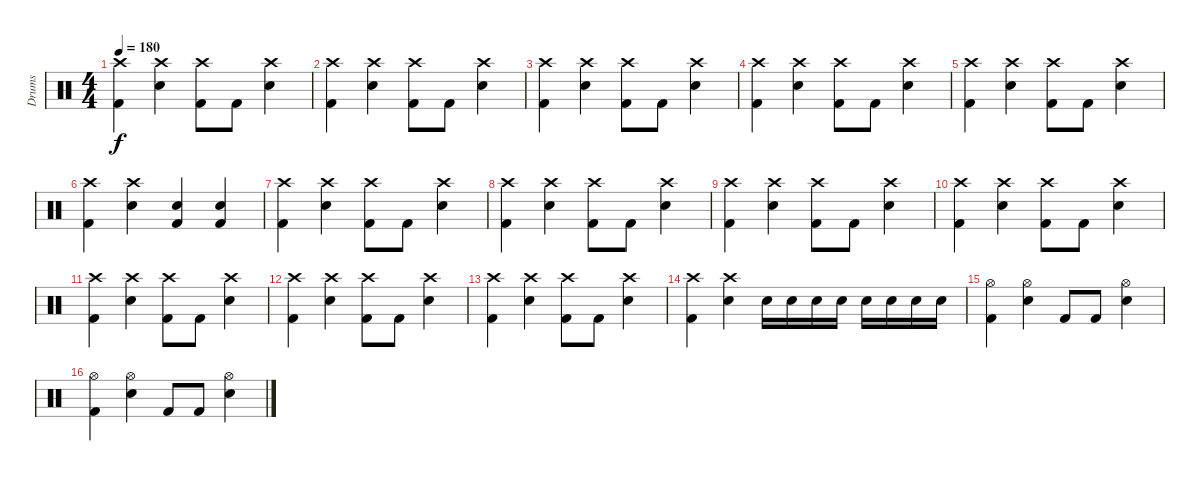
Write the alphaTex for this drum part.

\track ("Drums" "Drums") {instrument percussion}
\staff {score}
\articulation defaults
\ts (4 4)
\tempo 180
\clef neutral
\ks c
("Kick (hit) 2" "Crash high (hit)").4{dy f} ("Snare (hit) 2" "Crash high (hit)").4 ("Kick (hit) 2" "Crash high (hit)").8 "Kick (hit) 2".8 ("Snare (hit) 2" "Crash high (hit)").4 |
("Kick (hit) 2" "Crash high (hit)").4 ("Snare (hit) 2" "Crash high (hit)").4 ("Kick (hit) 2" "Crash high (hit)").8 "Kick (hit) 2".8 ("Snare (hit) 2" "Crash high (hit)").4 |
("Kick (hit) 2" "Crash high (hit)").4 ("Snare (hit) 2" "Crash high (hit)").4 ("Kick (hit) 2" "Crash high (hit)").8 "Kick (hit) 2".8 ("Snare (hit) 2" "Crash high (hit)").4 |
("Kick (hit) 2" "Crash high (hit)").4 ("Snare (hit) 2" "Crash high (hit)").4 ("Kick (hit) 2" "Crash high (hit)").8 "Kick (hit) 2".8 ("Snare (hit) 2" "Crash high (hit)").4 |
("Kick (hit) 2" "Crash high (hit)").4 ("Snare (hit) 2" "Crash high (hit)").4 ("Kick (hit) 2" "Crash high (hit)").8 "Kick (hit) 2".8 ("Snare (hit) 2" "Crash high (hit)").4 |
("Kick (hit) 2" "Crash high (hit)").4 ("Snare (hit) 2" "Crash high (hit)").4 ("Kick (hit) 2" "Snare (hit) 2").4 ("Snare (hit) 2" "Kick (hit) 2").4 |
("Kick (hit) 2" "Crash high (hit)").4 ("Snare (hit) 2" "Crash high (hit)").4 ("Kick (hit) 2" "Crash high (hit)").8 "Kick (hit) 2".8 ("Snare (hit) 2" "Crash high (hit)").4 |
("Kick (hit) 2" "Crash high (hit)").4 ("Snare (hit) 2" "Crash high (hit)").4 ("Kick (hit) 2" "Crash high (hit)").8 "Kick (hit) 2".8 ("Snare (hit) 2" "Crash high (hit)").4 |
("Kick (hit) 2" "Crash high (hit)").4 ("Snare (hit) 2" "Crash high (hit)").4 ("Kick (hit) 2" "Crash high (hit)").8 "Kick (hit) 2".8 ("Snare (hit) 2" "Crash high (hit)").4 |
("Kick (hit) 2" "Crash high (hit)").4 ("Snare (hit) 2" "Crash high (hit)").4 ("Kick (hit) 2" "Crash high (hit)").8 "Kick (hit) 2".8 ("Snare (hit) 2" "Crash high (hit)").4 |
("Kick (hit) 2" "Crash high (hit)").4 ("Snare (hit) 2" "Crash high (hit)").4 ("Kick (hit) 2" "Crash high (hit)").8 "Kick (hit) 2".8 ("Snare (hit) 2" "Crash high (hit)").4 |
("Kick (hit) 2" "Crash high (hit)").4 ("Snare (hit) 2" "Crash high (hit)").4 ("Kick (hit) 2" "Crash high (hit)").8 "Kick (hit) 2".8 ("Snare (hit) 2" "Crash high (hit)").4 |
("Kick (hit) 2" "Crash high (hit)").4 ("Snare (hit) 2" "Crash high (hit)").4 ("Kick (hit) 2" "Crash high (hit)").8 "Kick (hit) 2".8 ("Snare (hit) 2" "Crash high (hit)").4 |
("Kick (hit) 2" "Crash high (hit)").4 ("Snare (hit) 2" "Crash high (hit)").4 "Snare (hit) 2".16 "Snare (hit) 2".16 "Snare (hit) 2".16 "Snare (hit) 2".16 "Snare (hit) 2".16 "Snare (hit) 2".16 "Snare (hit) 2".16 "Snare (hit) 2".16 |
("Hi-Hat (open)" "Kick (hit) 2").4 ("Hi-Hat (open)" "Snare (hit) 2").4 "Kick (hit) 2".8 "Kick (hit) 2".8 ("Hi-Hat (open)" "Snare (hit) 2").4 |
("Hi-Hat (open)" "Kick (hit) 2").4 ("Hi-Hat (open)" "Snare (hit) 2").4 "Kick (hit) 2".8 "Kick (hit) 2".8 ("Hi-Hat (open)" "Snare (hit) 2").4
